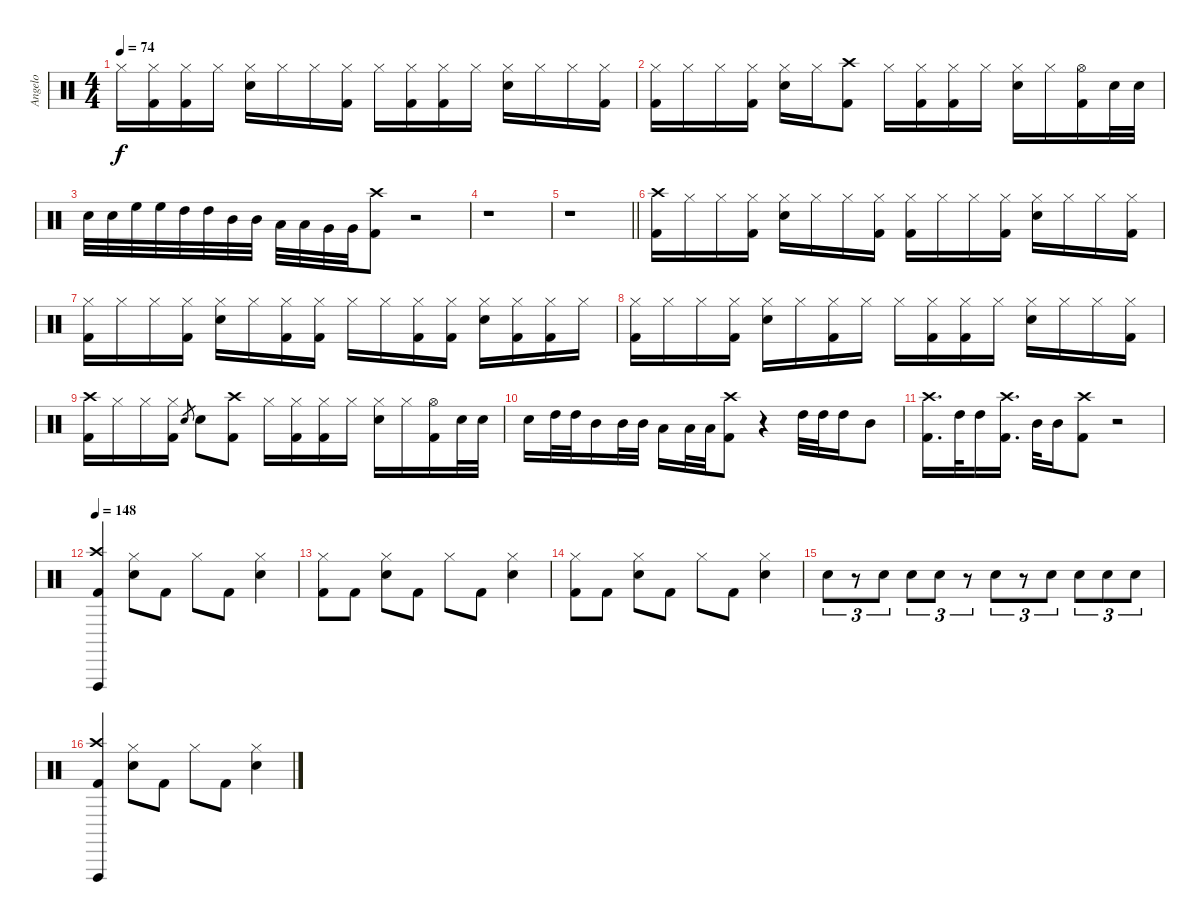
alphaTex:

\track ("Angelo" "Angelo") {instrument percussion}
\staff {score}
\articulation defaults
\ts (4 4)
\tempo 74
\clef neutral
\ks c "Hi-Hat (closed)".16{dy f}
("Hi-Hat (closed)" "Kick (hit) 2").16 ("Hi-Hat (closed)" "Kick (hit) 2").16 "Hi-Hat (closed)".16 ("Hi-Hat (closed)" "Snare (hit) 2").16 "Hi-Hat (closed)".16 "Hi-Hat (closed)".16 ("Hi-Hat (closed)" "Kick (hit) 2").16 "Hi-Hat (closed)".16 ("Hi-Hat (closed)" "Kick (hit) 2").16 ("Hi-Hat (closed)" "Kick (hit) 2").16 "Hi-Hat (closed)".16 ("Hi-Hat (closed)" "Snare (hit) 2").16 "Hi-Hat (closed)".16 "Hi-Hat (closed)".16 ("Hi-Hat (closed)" "Kick (hit) 2").16 |
("Hi-Hat (closed)" "Kick (hit) 2").16 "Hi-Hat (closed)".16 "Hi-Hat (closed)".16 ("Hi-Hat (closed)" "Kick (hit) 2").16 ("Hi-Hat (closed)" "Snare (hit) 2").16 "Hi-Hat (closed)".16 ("Crash high (hit)" "Kick (hit) 2").8 "Hi-Hat (closed)".16 ("Hi-Hat (closed)" "Kick (hit) 2").16 ("Hi-Hat (closed)" "Kick (hit) 2").16 "Hi-Hat (closed)".16 ("Hi-Hat (closed)" "Snare (hit) 2").16 "Hi-Hat (closed)".16 ("Hi-Hat (open)" "Kick (hit) 2").16 "Snare (hit) 2".32 "Snare (hit) 2".32 |
"Snare (hit) 2".32 "Snare (hit) 2".32 "High Floor Tom (hit)".32 "High Floor Tom (hit)".32 "High Tom (hit)".32 "High Tom (hit)".32 "Mid Tom (hit)".32 "Mid Tom (hit)".32 "Low Tom (hit)".32 "Low Tom (hit)".32 "Very Low Tom (hit)".32 "Very Low Tom (hit)".32 ("Crash high (hit)" "Kick (hit) 2").8 r.2 |
r.1 |
\barLineRight lightlight
r.1 |
("Crash high (hit)" "Kick (hit) 2").16 "Hi-Hat (closed)".16 "Hi-Hat (closed)".16 ("Hi-Hat (closed)" "Kick (hit) 2").16 ("Hi-Hat (closed)" "Snare (hit) 2").16 "Hi-Hat (closed)".16 "Hi-Hat (closed)".16 ("Hi-Hat (closed)" "Kick (hit) 2").16 ("Hi-Hat (closed)" "Kick (hit) 2").16 "Hi-Hat (closed)".16 "Hi-Hat (closed)".16 ("Hi-Hat (closed)" "Kick (hit) 2").16 ("Hi-Hat (closed)" "Snare (hit) 2").16 "Hi-Hat (closed)".16 "Hi-Hat (closed)".16 ("Hi-Hat (closed)" "Kick (hit) 2").16 |
("Hi-Hat (closed)" "Kick (hit) 2").16 "Hi-Hat (closed)".16 "Hi-Hat (closed)".16 ("Hi-Hat (closed)" "Kick (hit) 2").16 ("Hi-Hat (closed)" "Snare (hit) 2").16 "Hi-Hat (closed)".16 ("Hi-Hat (closed)" "Kick (hit) 2").16 ("Hi-Hat (closed)" "Kick (hit) 2").16 "Hi-Hat (closed)".16 "Hi-Hat (closed)".16 ("Hi-Hat (closed)" "Kick (hit) 2").16 ("Hi-Hat (closed)" "Kick (hit) 2").16 ("Hi-Hat (closed)" "Snare (hit) 2").16 ("Hi-Hat (closed)" "Kick (hit) 2").16 ("Hi-Hat (closed)" "Kick (hit) 2").16 "Hi-Hat (closed)".16 |
("Hi-Hat (closed)" "Kick (hit) 2").16 "Hi-Hat (closed)".16 "Hi-Hat (closed)".16 ("Hi-Hat (closed)" "Kick (hit) 2").16 ("Hi-Hat (closed)" "Snare (hit) 2").16 "Hi-Hat (closed)".16 ("Hi-Hat (closed)" "Kick (hit) 2").16 "Hi-Hat (closed)".16 "Hi-Hat (closed)".16 ("Hi-Hat (closed)" "Kick (hit) 2").16 ("Hi-Hat (closed)" "Kick (hit) 2").16 "Hi-Hat (closed)".16 ("Hi-Hat (closed)" "Snare (hit) 2").16 "Hi-Hat (closed)".16 "Hi-Hat (closed)".16 ("Hi-Hat (closed)" "Kick (hit) 2").16 |
("Crash high (hit)" "Kick (hit) 2").16 "Hi-Hat (closed)".16 "Hi-Hat (closed)".16 ("Hi-Hat (closed)" "Kick (hit) 2").16 "Snare (hit) 2".8{gr} "Snare (hit) 2".8 ("Crash high (hit)" "Kick (hit) 2").8 "Hi-Hat (closed)".16 ("Hi-Hat (closed)" "Kick (hit) 2").16 ("Hi-Hat (closed)" "Kick (hit) 2").16 "Hi-Hat (closed)".16 ("Hi-Hat (closed)" "Snare (hit) 2").16 "Hi-Hat (closed)".16 ("Hi-Hat (open)" "Kick (hit) 2").16 "Snare (hit) 2".32 "Snare (hit) 2".32 |
"Snare (hit) 2".16 "High Tom (hit)".32 "High Tom (hit)".32 "Mid Tom (hit)".16 "Mid Tom (hit)".32 "Mid Tom (hit)".32 "Low Tom (hit)".16 "Low Tom (hit)".32 "Low Tom (hit)".32 ("Crash high (hit)" "Kick (hit) 2").8 r.4 "High Tom (hit)".32 "High Tom (hit)".32 "High Tom (hit)".16 "Mid Tom (hit)".8 |
("Crash high (hit)" "Kick (hit) 2").16{d} "High Tom (hit)".32 "High Tom (hit)".16 ("Crash high (hit)" "Kick (hit) 2").16{d} "Mid Tom (hit)".32 "Mid Tom (hit)".16 ("Crash high (hit)" "Kick (hit) 2").8 r.2 |
\tempo 148
("Crash high (hit)" "Vibraslap (hit)" "Kick (hit) 2").4 ("Hi-Hat (closed)" "Snare (hit) 2").8 "Kick (hit) 2".8 "Hi-Hat (closed)".8 "Kick (hit) 2".8 ("Hi-Hat (closed)" "Snare (hit) 2").4 |
("Hi-Hat (closed)" "Kick (hit) 2").8 "Kick (hit) 2".8 ("Hi-Hat (closed)" "Snare (hit) 2").8 "Kick (hit) 2".8 "Hi-Hat (closed)".8 "Kick (hit) 2".8 ("Hi-Hat (closed)" "Snare (hit) 2").4 |
("Hi-Hat (closed)" "Kick (hit) 2").8 "Kick (hit) 2".8 ("Hi-Hat (closed)" "Snare (hit) 2").8 "Kick (hit) 2".8 "Hi-Hat (closed)".8 "Kick (hit) 2".8 ("Hi-Hat (closed)" "Snare (hit) 2").4 |
"Snare (hit) 2".8{tu (3 2)} r.8{tu (3 2)} "Snare (hit) 2".8{tu (3 2)} "Snare (hit) 2".8{tu (3 2)} "Snare (hit) 2".8{tu (3 2)} r.8{tu (3 2)} "Snare (hit) 2".8{tu (3 2)} r.8{tu (3 2)} "Snare (hit) 2".8{tu (3 2)} "Snare (hit) 2".8{tu (3 2)} "Snare (hit) 2".8{tu (3 2)} "Snare (hit) 2".8{tu (3 2)} |
("Crash high (hit)" "Vibraslap (hit)" "Kick (hit) 2").4 ("Hi-Hat (closed)" "Snare (hit) 2").8 "Kick (hit) 2".8 "Hi-Hat (closed)".8 "Kick (hit) 2".8 ("Hi-Hat (closed)" "Snare (hit) 2").4
